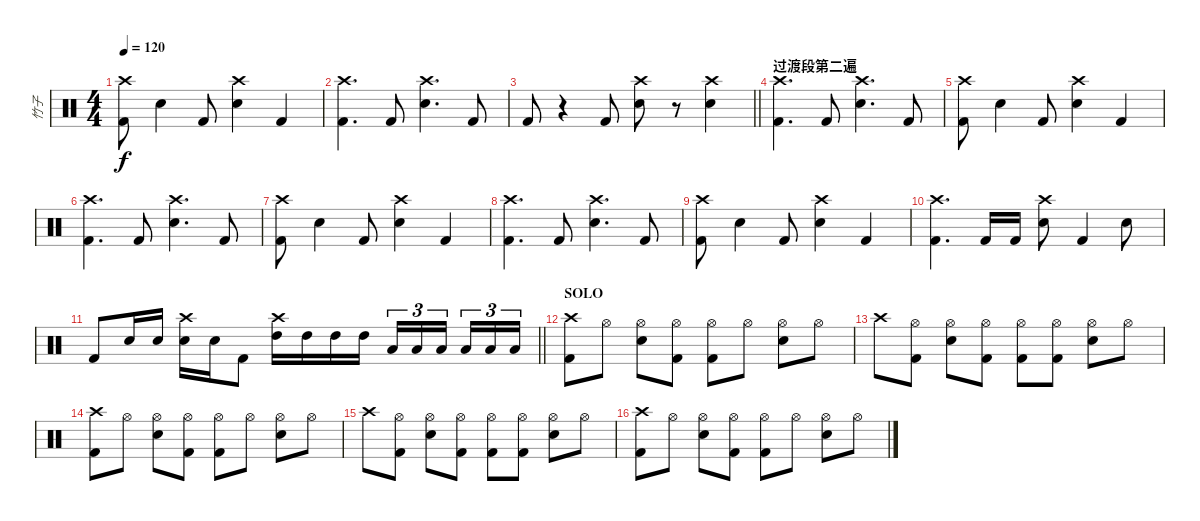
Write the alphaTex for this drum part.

\track ("竹子" "竹子") {instrument percussion}
\staff {score}
\articulation defaults
\ts (4 4)
\tempo 120
\clef neutral
\ks c
("Crash high (hit)" "Kick (hit) 2").8{dy f} "Electric Snare (hit)".4 "Kick (hit) 2".8 ("Crash high (hit)" "Electric Snare (hit)").4 "Kick (hit) 2".4 |
("Crash high (hit)" "Kick (hit) 2").4{d} "Kick (hit) 2".8 ("Crash high (hit)" "Electric Snare (hit)").4{d} "Kick (hit) 2".8 |
\barLineRight lightlight "Kick (hit) 2".8
r.4 "Kick (hit) 2".8 ("Crash high (hit)" "Electric Snare (hit)").8 r.8 ("Crash high (hit)" "Electric Snare (hit)").4 |
\section ("" "过渡段第二遍")
("Crash high (hit)" "Kick (hit) 2").4{d} "Kick (hit) 2".8 ("Crash high (hit)" "Electric Snare (hit)").4{d} "Kick (hit) 2".8 |
("Crash high (hit)" "Kick (hit) 2").8 "Electric Snare (hit)".4 "Kick (hit) 2".8 ("Crash high (hit)" "Electric Snare (hit)").4 "Kick (hit) 2".4 |
("Crash high (hit)" "Kick (hit) 2").4{d} "Kick (hit) 2".8 ("Crash high (hit)" "Electric Snare (hit)").4{d} "Kick (hit) 2".8 |
("Crash high (hit)" "Kick (hit) 2").8 "Electric Snare (hit)".4 "Kick (hit) 2".8 ("Crash high (hit)" "Electric Snare (hit)").4 "Kick (hit) 2".4 |
("Crash high (hit)" "Kick (hit) 2").4{d} "Kick (hit) 2".8 ("Crash high (hit)" "Electric Snare (hit)").4{d} "Kick (hit) 2".8 |
("Crash high (hit)" "Kick (hit) 2").8 "Electric Snare (hit)".4 "Kick (hit) 2".8 ("Crash high (hit)" "Electric Snare (hit)").4 "Kick (hit) 2".4 |
("Crash high (hit)" "Kick (hit) 2").4{d} "Kick (hit) 2".16 "Kick (hit) 2".16 ("Crash high (hit)" "Electric Snare (hit)").8 "Kick (hit) 2".4 "Electric Snare (hit)".8 |
\barLineRight lightlight "Kick (hit) 2".8 "Electric Snare (hit)".16 "Electric Snare (hit)".16
("Crash high (hit)" "Electric Snare (hit)").16 "Electric Snare (hit)".16 "Kick (hit) 2".8 ("Crash high (hit)" "High Tom (hit)").16 "High Tom (hit)".16 "High Tom (hit)".16 "High Tom (hit)".16 "Low Floor Tom (hit)".16{tu (3 2)} "Low Floor Tom (hit)".16{tu (3 2)} "Low Floor Tom (hit)".16{tu (3 2) beam splitsecondary} "Low Floor Tom (hit)".16{tu (3 2)} "Low Floor Tom (hit)".16{tu (3 2)} "Low Floor Tom (hit)".16{tu (3 2)} |
\section ("" "SOLO")
("Crash high (hit)" "Kick (hit) 2").8 "Hi-Hat (open)".8 ("Hi-Hat (open)" "Electric Snare (hit)").8 ("Hi-Hat (open)" "Kick (hit) 2").8 ("Hi-Hat (open)" "Kick (hit) 2").8 "Hi-Hat (open)".8 ("Hi-Hat (open)" "Electric Snare (hit)").8 "Hi-Hat (open)".8 |
"Crash high (hit)".8 ("Hi-Hat (open)" "Kick (hit) 2").8 ("Hi-Hat (open)" "Electric Snare (hit)").8 ("Hi-Hat (open)" "Kick (hit) 2").8 ("Hi-Hat (open)" "Kick (hit) 2").8 ("Hi-Hat (open)" "Kick (hit) 2").8 ("Hi-Hat (open)" "Electric Snare (hit)").8 "Hi-Hat (open)".8 |
("Crash high (hit)" "Kick (hit) 2").8 "Hi-Hat (open)".8 ("Hi-Hat (open)" "Electric Snare (hit)").8 ("Hi-Hat (open)" "Kick (hit) 2").8 ("Hi-Hat (open)" "Kick (hit) 2").8 "Hi-Hat (open)".8 ("Hi-Hat (open)" "Electric Snare (hit)").8 "Hi-Hat (open)".8 |
"Crash high (hit)".8 ("Hi-Hat (open)" "Kick (hit) 2").8 ("Hi-Hat (open)" "Electric Snare (hit)").8 ("Hi-Hat (open)" "Kick (hit) 2").8 ("Hi-Hat (open)" "Kick (hit) 2").8 ("Hi-Hat (open)" "Kick (hit) 2").8 ("Hi-Hat (open)" "Electric Snare (hit)").8 "Hi-Hat (open)".8 |
("Crash high (hit)" "Kick (hit) 2").8 "Hi-Hat (open)".8 ("Hi-Hat (open)" "Electric Snare (hit)").8 ("Hi-Hat (open)" "Kick (hit) 2").8 ("Hi-Hat (open)" "Kick (hit) 2").8 "Hi-Hat (open)".8 ("Hi-Hat (open)" "Electric Snare (hit)").8 "Hi-Hat (open)".8
